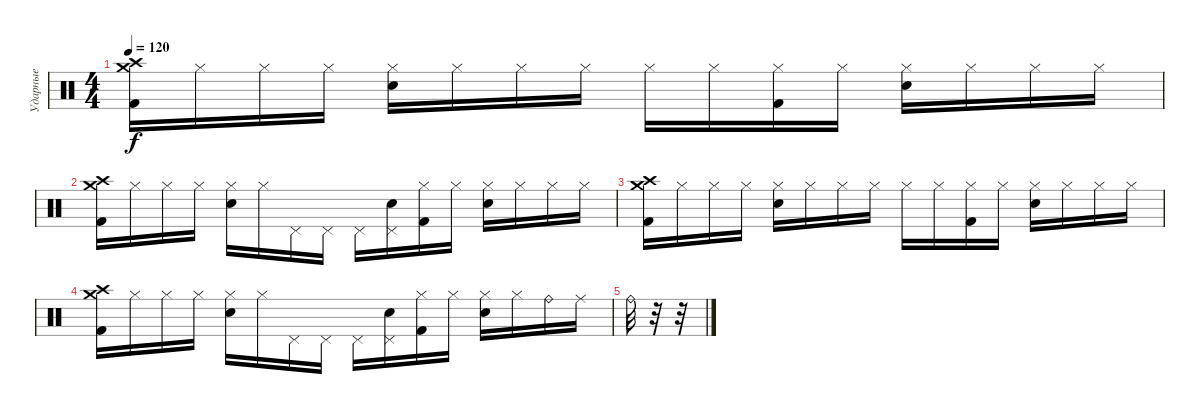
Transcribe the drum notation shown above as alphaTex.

\track ("Ударные" "Ударные") {instrument percussion}
\staff
\articulation defaults
\ts (4 4)
\tempo 120
\clef neutral
\ks c
("Crash high (hit)" "Crash medium (hit)" "Kick (hit) 2").16{dy f} "Hi-Hat (closed)".16 "Hi-Hat (closed)".16 "Hi-Hat (closed)".16 ("Hi-Hat (closed)" "Electric Snare (hit)").16 "Hi-Hat (closed)".16 "Hi-Hat (closed)".16 "Hi-Hat (closed)".16 "Hi-Hat (closed)".16 "Hi-Hat (closed)".16 ("Hi-Hat (closed)" "Kick (hit) 2").16 "Hi-Hat (closed)".16 ("Hi-Hat (closed)" "Electric Snare (hit)").16 "Hi-Hat (closed)".16 "Hi-Hat (closed)".16 "Hi-Hat (closed)".16 |
("Crash high (hit)" "Crash medium (hit)" "Kick (hit) 2").16 "Hi-Hat (closed)".16 "Hi-Hat (closed)".16 "Hi-Hat (closed)".16 ("Hi-Hat (closed)" "Electric Snare (hit)").16 "Hi-Hat (closed)".16 "Pedal Hi-Hat (hit)".16 "Pedal Hi-Hat (hit)".16 "Pedal Hi-Hat (hit)".16 ("Pedal Hi-Hat (hit)" "Electric Snare (hit)").16 ("Hi-Hat (closed)" "Kick (hit) 2").16 "Hi-Hat (closed)".16 ("Hi-Hat (closed)" "Electric Snare (hit)").16 "Hi-Hat (closed)".16 "Hi-Hat (closed)".16 "Hi-Hat (closed)".16 |
("Crash high (hit)" "Crash medium (hit)" "Kick (hit) 2").16 "Hi-Hat (closed)".16 "Hi-Hat (closed)".16 "Hi-Hat (closed)".16 ("Hi-Hat (closed)" "Electric Snare (hit)").16 "Hi-Hat (closed)".16 "Hi-Hat (closed)".16 "Hi-Hat (closed)".16 "Hi-Hat (closed)".16 "Hi-Hat (closed)".16 ("Hi-Hat (closed)" "Kick (hit) 2").16 "Hi-Hat (closed)".16 ("Hi-Hat (closed)" "Electric Snare (hit)").16 "Hi-Hat (closed)".16 "Hi-Hat (closed)".16 "Hi-Hat (closed)".16 |
("Crash high (hit)" "Crash medium (hit)" "Kick (hit) 2").16 "Hi-Hat (closed)".16 "Hi-Hat (closed)".16 "Hi-Hat (closed)".16 ("Hi-Hat (closed)" "Electric Snare (hit)").16 "Hi-Hat (closed)".16 "Pedal Hi-Hat (hit)".16 "Pedal Hi-Hat (hit)".16 "Pedal Hi-Hat (hit)".16 ("Pedal Hi-Hat (hit)" "Electric Snare (hit)").16 ("Hi-Hat (closed)" "Kick (hit) 2").16 "Hi-Hat (closed)".16 ("Hi-Hat (closed)" "Electric Snare (hit)").16 "Hi-Hat (closed)".16 "Ride (bell)".16 "Ride (middle)".16 |
"Ride (bell)".32 r.32 r.32
